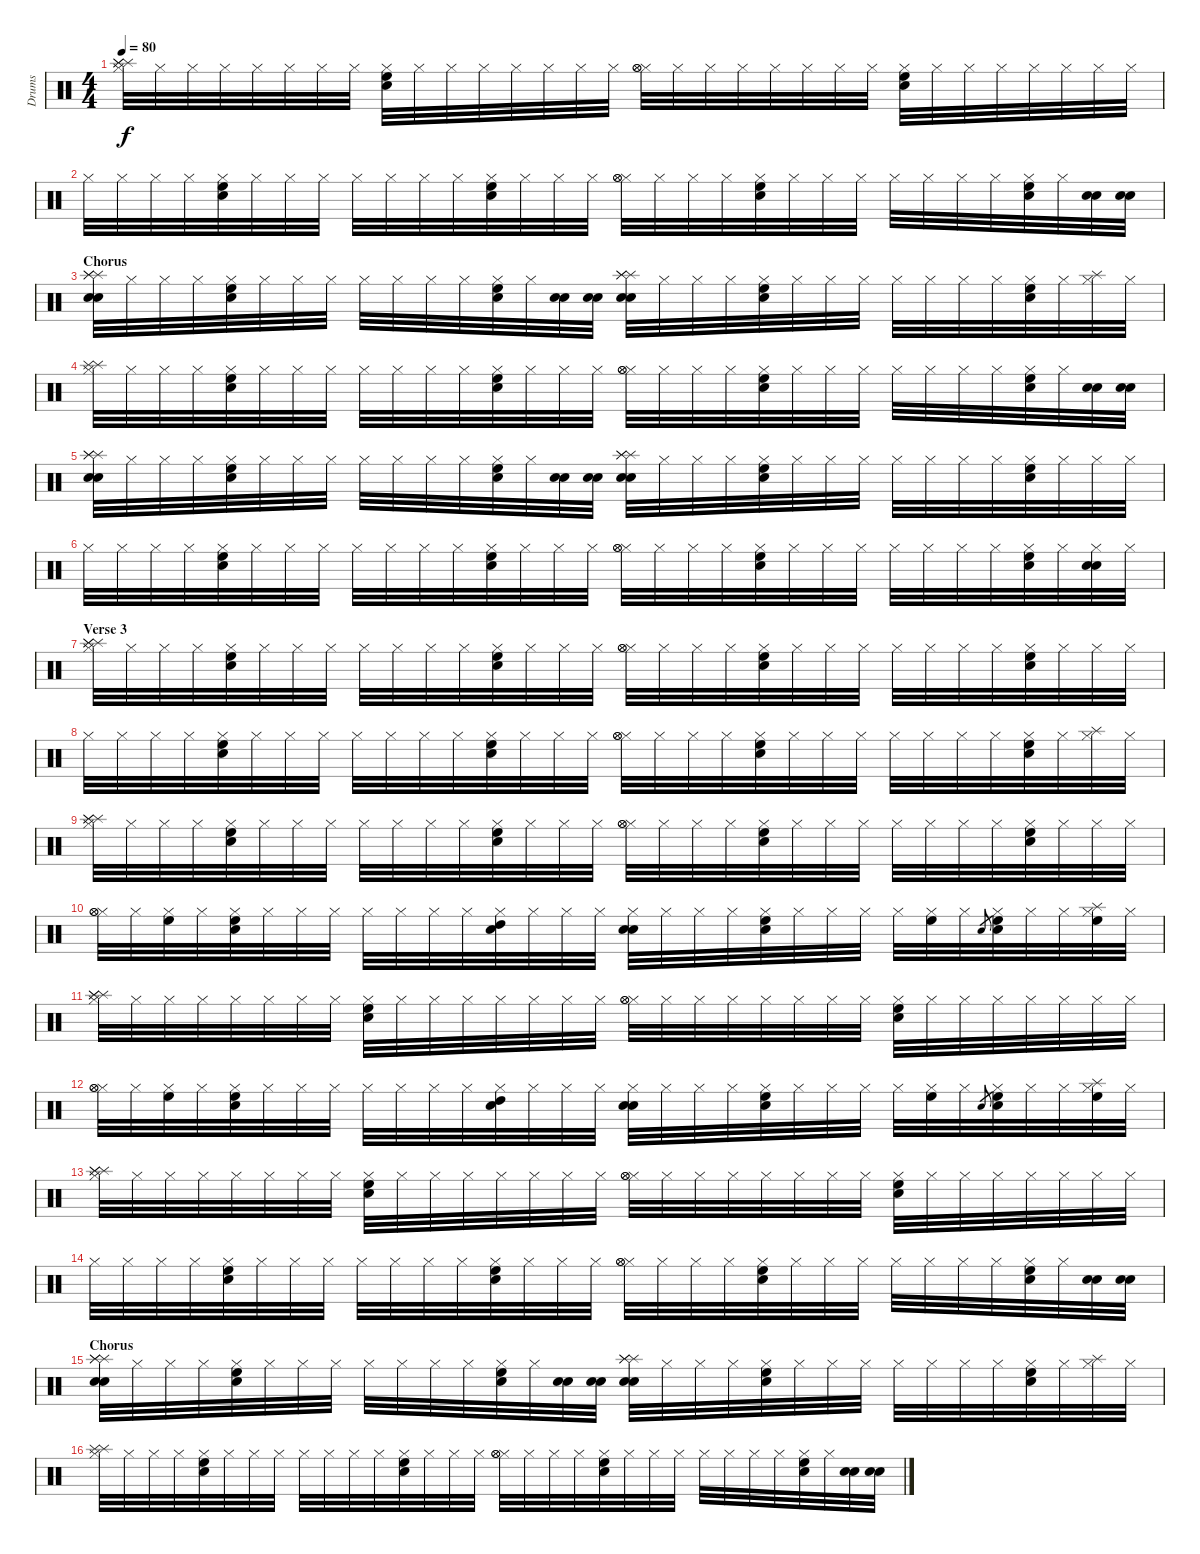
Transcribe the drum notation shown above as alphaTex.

\track ("Drums" "Drums") {instrument percussion}
\staff {score}
\articulation defaults
\ts (4 4)
\tempo 80
\clef neutral
\ks c
("Hi-Hat (closed)" "Splash (hit)" "Splash (hit)" "Splash (hit)").32{dy f} "Hi-Hat (closed)".32 "Hi-Hat (closed)".32 "Hi-Hat (closed)".32 "Hi-Hat (closed)".32 "Hi-Hat (closed)".32 "Hi-Hat (closed)".32 "Hi-Hat (closed)".32 ("Hi-Hat (closed)" "Snare (hit) 2" "High Floor Tom (hit)").32 "Hi-Hat (closed)".32 "Hi-Hat (closed)".32 "Hi-Hat (closed)".32 "Hi-Hat (closed)".32 "Hi-Hat (closed)".32 "Hi-Hat (closed)".32 "Hi-Hat (closed)".32 ("Hi-Hat (closed)" "Hi-Hat (open)" "Hi-Hat (open)").32 "Hi-Hat (closed)".32 "Hi-Hat (closed)".32 "Hi-Hat (closed)".32 "Hi-Hat (closed)".32 "Hi-Hat (closed)".32 "Hi-Hat (closed)".32 "Hi-Hat (closed)".32 ("Hi-Hat (closed)" "Snare (hit) 2" "High Floor Tom (hit)").32 "Hi-Hat (closed)".32 "Hi-Hat (closed)".32 "Hi-Hat (closed)".32 "Hi-Hat (closed)".32 "Hi-Hat (closed)".32 "Hi-Hat (closed)".32 "Hi-Hat (closed)".32 |
"Hi-Hat (closed)".32 "Hi-Hat (closed)".32 "Hi-Hat (closed)".32 "Hi-Hat (closed)".32 ("Hi-Hat (closed)" "Snare (hit) 2" "High Floor Tom (hit)").32 "Hi-Hat (closed)".32 "Hi-Hat (closed)".32 "Hi-Hat (closed)".32 "Hi-Hat (closed)".32 "Hi-Hat (closed)".32 "Hi-Hat (closed)".32 "Hi-Hat (closed)".32 ("Hi-Hat (closed)" "Snare (hit) 2" "High Floor Tom (hit)").32 "Hi-Hat (closed)".32 "Hi-Hat (closed)".32 "Hi-Hat (closed)".32 ("Hi-Hat (closed)" "Hi-Hat (open)" "Hi-Hat (open)").32 "Hi-Hat (closed)".32 "Hi-Hat (closed)".32 "Hi-Hat (closed)".32 ("Hi-Hat (closed)" "Snare (hit) 2" "High Floor Tom (hit)").32 "Hi-Hat (closed)".32 "Hi-Hat (closed)".32 "Hi-Hat (closed)".32 "Hi-Hat (closed)".32 "Hi-Hat (closed)".32 "Hi-Hat (closed)".32 "Hi-Hat (closed)".32 ("Hi-Hat (closed)" "Snare (hit) 2" "High Floor Tom (hit)").32 "Hi-Hat (closed)".32 ("Snare (hit) 2" "Snare (hit) 2").32 ("Snare (hit) 2" "Snare (hit) 2").32 |
\section ("" "Chorus")
("Snare (hit) 2" "Snare (hit) 2" "Splash (hit)" "Splash (hit)" "Splash (hit)").32 "Hi-Hat (closed)".32 "Hi-Hat (closed)".32 "Hi-Hat (closed)".32 ("Hi-Hat (closed)" "Snare (hit) 2" "High Floor Tom (hit)").32 "Hi-Hat (closed)".32 "Hi-Hat (closed)".32 "Hi-Hat (closed)".32 "Hi-Hat (closed)".32 "Hi-Hat (closed)".32 "Hi-Hat (closed)".32 "Hi-Hat (closed)".32 ("Hi-Hat (closed)" "Snare (hit) 2" "High Floor Tom (hit)").32 "Hi-Hat (closed)".32 ("Snare (hit) 2" "Snare (hit) 2").32 ("Snare (hit) 2" "Snare (hit) 2").32 ("Snare (hit) 2" "Snare (hit) 2" "Splash (hit)" "Splash (hit)" "Splash (hit)").32 "Hi-Hat (closed)".32 "Hi-Hat (closed)".32 "Hi-Hat (closed)".32 ("Hi-Hat (closed)" "Snare (hit) 2" "High Floor Tom (hit)").32 "Hi-Hat (closed)".32 "Hi-Hat (closed)".32 "Hi-Hat (closed)".32 "Hi-Hat (closed)".32 "Hi-Hat (closed)".32 "Hi-Hat (closed)".32 "Hi-Hat (closed)".32 ("Hi-Hat (closed)" "Snare (hit) 2" "High Floor Tom (hit)").32 "Hi-Hat (closed)".32 ("Hi-Hat (closed)" "Splash (hit)").32 "Hi-Hat (closed)".32 |
("Hi-Hat (closed)" "Splash (hit)" "Splash (hit)").32 "Hi-Hat (closed)".32 "Hi-Hat (closed)".32 "Hi-Hat (closed)".32 ("Hi-Hat (closed)" "Snare (hit) 2" "High Floor Tom (hit)").32 "Hi-Hat (closed)".32 "Hi-Hat (closed)".32 "Hi-Hat (closed)".32 "Hi-Hat (closed)".32 "Hi-Hat (closed)".32 "Hi-Hat (closed)".32 "Hi-Hat (closed)".32 ("Hi-Hat (closed)" "Snare (hit) 2" "High Floor Tom (hit)").32 "Hi-Hat (closed)".32 "Hi-Hat (closed)".32 "Hi-Hat (closed)".32 ("Hi-Hat (closed)" "Hi-Hat (open)" "Hi-Hat (open)").32 "Hi-Hat (closed)".32 "Hi-Hat (closed)".32 "Hi-Hat (closed)".32 ("Hi-Hat (closed)" "Snare (hit) 2" "High Floor Tom (hit)").32 "Hi-Hat (closed)".32 "Hi-Hat (closed)".32 "Hi-Hat (closed)".32 "Hi-Hat (closed)".32 "Hi-Hat (closed)".32 "Hi-Hat (closed)".32 "Hi-Hat (closed)".32 ("Hi-Hat (closed)" "Snare (hit) 2" "High Floor Tom (hit)").32 "Hi-Hat (closed)".32 ("Snare (hit) 2" "Snare (hit) 2").32 ("Snare (hit) 2" "Snare (hit) 2").32 |
("Snare (hit) 2" "Snare (hit) 2" "Splash (hit)" "Splash (hit)" "Splash (hit)").32 "Hi-Hat (closed)".32 "Hi-Hat (closed)".32 "Hi-Hat (closed)".32 ("Hi-Hat (closed)" "Snare (hit) 2" "High Floor Tom (hit)").32 "Hi-Hat (closed)".32 "Hi-Hat (closed)".32 "Hi-Hat (closed)".32 "Hi-Hat (closed)".32 "Hi-Hat (closed)".32 "Hi-Hat (closed)".32 "Hi-Hat (closed)".32 ("Hi-Hat (closed)" "Snare (hit) 2" "High Floor Tom (hit)").32 "Hi-Hat (closed)".32 ("Snare (hit) 2" "Snare (hit) 2").32 ("Snare (hit) 2" "Snare (hit) 2").32 ("Snare (hit) 2" "Snare (hit) 2" "Splash (hit)" "Splash (hit)" "Splash (hit)").32 "Hi-Hat (closed)".32 "Hi-Hat (closed)".32 "Hi-Hat (closed)".32 ("Hi-Hat (closed)" "Snare (hit) 2" "High Floor Tom (hit)").32 "Hi-Hat (closed)".32 "Hi-Hat (closed)".32 "Hi-Hat (closed)".32 "Hi-Hat (closed)".32 "Hi-Hat (closed)".32 "Hi-Hat (closed)".32 "Hi-Hat (closed)".32 ("Hi-Hat (closed)" "Snare (hit) 2" "High Floor Tom (hit)").32 "Hi-Hat (closed)".32 "Hi-Hat (closed)".32 "Hi-Hat (closed)".32 |
"Hi-Hat (closed)".32 "Hi-Hat (closed)".32 "Hi-Hat (closed)".32 "Hi-Hat (closed)".32 ("Hi-Hat (closed)" "Snare (hit) 2" "High Floor Tom (hit)").32 "Hi-Hat (closed)".32 "Hi-Hat (closed)".32 "Hi-Hat (closed)".32 "Hi-Hat (closed)".32 "Hi-Hat (closed)".32 "Hi-Hat (closed)".32 "Hi-Hat (closed)".32 ("Hi-Hat (closed)" "Snare (hit) 2" "High Floor Tom (hit)").32 "Hi-Hat (closed)".32 "Hi-Hat (closed)".32 "Hi-Hat (closed)".32 ("Hi-Hat (closed)" "Hi-Hat (open)" "Hi-Hat (open)").32 "Hi-Hat (closed)".32 "Hi-Hat (closed)".32 "Hi-Hat (closed)".32 ("Hi-Hat (closed)" "Snare (hit) 2" "High Floor Tom (hit)").32 "Hi-Hat (closed)".32 "Hi-Hat (closed)".32 "Hi-Hat (closed)".32 "Hi-Hat (closed)".32 "Hi-Hat (closed)".32 "Hi-Hat (closed)".32 "Hi-Hat (closed)".32 ("Hi-Hat (closed)" "Snare (hit) 2" "High Floor Tom (hit)").32 "Hi-Hat (closed)".32 ("Hi-Hat (closed)" "Snare (hit) 2" "Snare (hit) 2").32 "Hi-Hat (closed)".32 |
\section ("" "Verse 3")
("Hi-Hat (closed)" "Splash (hit)" "Splash (hit)" "Splash (hit)").32 "Hi-Hat (closed)".32 "Hi-Hat (closed)".32 "Hi-Hat (closed)".32 ("Hi-Hat (closed)" "Snare (hit) 2" "High Floor Tom (hit)").32 "Hi-Hat (closed)".32 "Hi-Hat (closed)".32 "Hi-Hat (closed)".32 "Hi-Hat (closed)".32 "Hi-Hat (closed)".32 "Hi-Hat (closed)".32 "Hi-Hat (closed)".32 ("Hi-Hat (closed)" "Snare (hit) 2" "High Floor Tom (hit)").32 "Hi-Hat (closed)".32 "Hi-Hat (closed)".32 "Hi-Hat (closed)".32 ("Hi-Hat (closed)" "Hi-Hat (open)" "Hi-Hat (open)").32 "Hi-Hat (closed)".32 "Hi-Hat (closed)".32 "Hi-Hat (closed)".32 ("Hi-Hat (closed)" "Snare (hit) 2" "High Floor Tom (hit)").32 "Hi-Hat (closed)".32 "Hi-Hat (closed)".32 "Hi-Hat (closed)".32 "Hi-Hat (closed)".32 "Hi-Hat (closed)".32 "Hi-Hat (closed)".32 "Hi-Hat (closed)".32 ("Hi-Hat (closed)" "Snare (hit) 2" "High Floor Tom (hit)").32 "Hi-Hat (closed)".32 "Hi-Hat (closed)".32 "Hi-Hat (closed)".32 |
"Hi-Hat (closed)".32 "Hi-Hat (closed)".32 "Hi-Hat (closed)".32 "Hi-Hat (closed)".32 ("Hi-Hat (closed)" "Snare (hit) 2" "High Floor Tom (hit)").32 "Hi-Hat (closed)".32 "Hi-Hat (closed)".32 "Hi-Hat (closed)".32 "Hi-Hat (closed)".32 "Hi-Hat (closed)".32 "Hi-Hat (closed)".32 "Hi-Hat (closed)".32 ("Hi-Hat (closed)" "Snare (hit) 2" "High Floor Tom (hit)").32 "Hi-Hat (closed)".32 "Hi-Hat (closed)".32 "Hi-Hat (closed)".32 ("Hi-Hat (closed)" "Hi-Hat (open)" "Hi-Hat (open)").32 "Hi-Hat (closed)".32 "Hi-Hat (closed)".32 "Hi-Hat (closed)".32 ("Hi-Hat (closed)" "Snare (hit) 2" "High Floor Tom (hit)").32 "Hi-Hat (closed)".32 "Hi-Hat (closed)".32 "Hi-Hat (closed)".32 "Hi-Hat (closed)".32 "Hi-Hat (closed)".32 "Hi-Hat (closed)".32 "Hi-Hat (closed)".32 ("Hi-Hat (closed)" "Snare (hit) 2" "High Floor Tom (hit)").32 "Hi-Hat (closed)".32 ("Hi-Hat (closed)" "Splash (hit)").32 "Hi-Hat (closed)".32 |
("Hi-Hat (closed)" "Splash (hit)" "Splash (hit)" "Splash (hit)").32 "Hi-Hat (closed)".32 "Hi-Hat (closed)".32 "Hi-Hat (closed)".32 ("Hi-Hat (closed)" "Snare (hit) 2" "High Floor Tom (hit)").32 "Hi-Hat (closed)".32 "Hi-Hat (closed)".32 "Hi-Hat (closed)".32 "Hi-Hat (closed)".32 "Hi-Hat (closed)".32 "Hi-Hat (closed)".32 "Hi-Hat (closed)".32 ("Hi-Hat (closed)" "Snare (hit) 2" "High Floor Tom (hit)").32 "Hi-Hat (closed)".32 "Hi-Hat (closed)".32 "Hi-Hat (closed)".32 ("Hi-Hat (closed)" "Hi-Hat (open)" "Hi-Hat (open)").32 "Hi-Hat (closed)".32 "Hi-Hat (closed)".32 "Hi-Hat (closed)".32 ("Hi-Hat (closed)" "Snare (hit) 2" "High Floor Tom (hit)").32 "Hi-Hat (closed)".32 "Hi-Hat (closed)".32 "Hi-Hat (closed)".32 "Hi-Hat (closed)".32 "Hi-Hat (closed)".32 "Hi-Hat (closed)".32 "Hi-Hat (closed)".32 ("Hi-Hat (closed)" "Snare (hit) 2" "High Floor Tom (hit)").32 "Hi-Hat (closed)".32 "Hi-Hat (closed)".32 "Hi-Hat (closed)".32 |
("Hi-Hat (closed)" "Hi-Hat (open)" "Hi-Hat (open)").32 "Hi-Hat (closed)".32 ("Hi-Hat (closed)" "High Floor Tom (hit)").32 "Hi-Hat (closed)".32 ("Hi-Hat (closed)" "Snare (hit) 2" "High Floor Tom (hit)").32 "Hi-Hat (closed)".32 "Hi-Hat (closed)".32 "Hi-Hat (closed)".32 "Hi-Hat (closed)".32 "Hi-Hat (closed)".32 "Hi-Hat (closed)".32 "Hi-Hat (closed)".32 ("Hi-Hat (closed)" "Snare (hit) 2" "High Tom (hit)").32 "Hi-Hat (closed)".32 "Hi-Hat (closed)".32 "Hi-Hat (closed)".32 ("Hi-Hat (closed)" "Snare (hit) 2" "Snare (hit) 2").32 "Hi-Hat (closed)".32 "Hi-Hat (closed)".32 "Hi-Hat (closed)".32 ("Hi-Hat (closed)" "Snare (hit) 2" "High Floor Tom (hit)").32 "Hi-Hat (closed)".32 "Hi-Hat (closed)".32 "Hi-Hat (closed)".32 "Hi-Hat (closed)".32 ("Hi-Hat (closed)" "High Floor Tom (hit)").32 "Hi-Hat (closed)".32 "Snare (hit) 2".8{gr} ("Hi-Hat (closed)" "Snare (hit) 2" "High Floor Tom (hit)").32 "Hi-Hat (closed)".32 "Hi-Hat (closed)".32 ("Hi-Hat (closed)" "Splash (hit)" "High Floor Tom (hit)").32 "Hi-Hat (closed)".32 |
("Hi-Hat (closed)" "Splash (hit)" "Splash (hit)" "Splash (hit)").32 "Hi-Hat (closed)".32 "Hi-Hat (closed)".32 "Hi-Hat (closed)".32 "Hi-Hat (closed)".32 "Hi-Hat (closed)".32 "Hi-Hat (closed)".32 "Hi-Hat (closed)".32 ("Hi-Hat (closed)" "Snare (hit) 2" "High Floor Tom (hit)").32 "Hi-Hat (closed)".32 "Hi-Hat (closed)".32 "Hi-Hat (closed)".32 "Hi-Hat (closed)".32 "Hi-Hat (closed)".32 "Hi-Hat (closed)".32 "Hi-Hat (closed)".32 ("Hi-Hat (closed)" "Hi-Hat (open)" "Hi-Hat (open)").32 "Hi-Hat (closed)".32 "Hi-Hat (closed)".32 "Hi-Hat (closed)".32 "Hi-Hat (closed)".32 "Hi-Hat (closed)".32 "Hi-Hat (closed)".32 "Hi-Hat (closed)".32 ("Hi-Hat (closed)" "Snare (hit) 2" "High Floor Tom (hit)").32 "Hi-Hat (closed)".32 "Hi-Hat (closed)".32 "Hi-Hat (closed)".32 "Hi-Hat (closed)".32 "Hi-Hat (closed)".32 "Hi-Hat (closed)".32 "Hi-Hat (closed)".32 |
("Hi-Hat (closed)" "Hi-Hat (open)" "Hi-Hat (open)").32 "Hi-Hat (closed)".32 ("Hi-Hat (closed)" "High Floor Tom (hit)").32 "Hi-Hat (closed)".32 ("Hi-Hat (closed)" "Snare (hit) 2" "High Floor Tom (hit)").32 "Hi-Hat (closed)".32 "Hi-Hat (closed)".32 "Hi-Hat (closed)".32 "Hi-Hat (closed)".32 "Hi-Hat (closed)".32 "Hi-Hat (closed)".32 "Hi-Hat (closed)".32 ("Hi-Hat (closed)" "Snare (hit) 2" "High Tom (hit)").32 "Hi-Hat (closed)".32 "Hi-Hat (closed)".32 "Hi-Hat (closed)".32 ("Hi-Hat (closed)" "Snare (hit) 2" "Snare (hit) 2").32 "Hi-Hat (closed)".32 "Hi-Hat (closed)".32 "Hi-Hat (closed)".32 ("Hi-Hat (closed)" "Snare (hit) 2" "High Floor Tom (hit)").32 "Hi-Hat (closed)".32 "Hi-Hat (closed)".32 "Hi-Hat (closed)".32 "Hi-Hat (closed)".32 ("Hi-Hat (closed)" "High Floor Tom (hit)").32 "Hi-Hat (closed)".32 "Snare (hit) 2".8{gr} ("Hi-Hat (closed)" "Snare (hit) 2" "High Floor Tom (hit)").32 "Hi-Hat (closed)".32 "Hi-Hat (closed)".32 ("Hi-Hat (closed)" "Splash (hit)" "High Floor Tom (hit)").32 "Hi-Hat (closed)".32 |
("Hi-Hat (closed)" "Splash (hit)" "Splash (hit)" "Splash (hit)").32 "Hi-Hat (closed)".32 "Hi-Hat (closed)".32 "Hi-Hat (closed)".32 "Hi-Hat (closed)".32 "Hi-Hat (closed)".32 "Hi-Hat (closed)".32 "Hi-Hat (closed)".32 ("Hi-Hat (closed)" "Snare (hit) 2" "High Floor Tom (hit)").32 "Hi-Hat (closed)".32 "Hi-Hat (closed)".32 "Hi-Hat (closed)".32 "Hi-Hat (closed)".32 "Hi-Hat (closed)".32 "Hi-Hat (closed)".32 "Hi-Hat (closed)".32 ("Hi-Hat (closed)" "Hi-Hat (open)" "Hi-Hat (open)").32 "Hi-Hat (closed)".32 "Hi-Hat (closed)".32 "Hi-Hat (closed)".32 "Hi-Hat (closed)".32 "Hi-Hat (closed)".32 "Hi-Hat (closed)".32 "Hi-Hat (closed)".32 ("Hi-Hat (closed)" "Snare (hit) 2" "High Floor Tom (hit)").32 "Hi-Hat (closed)".32 "Hi-Hat (closed)".32 "Hi-Hat (closed)".32 "Hi-Hat (closed)".32 "Hi-Hat (closed)".32 "Hi-Hat (closed)".32 "Hi-Hat (closed)".32 |
"Hi-Hat (closed)".32 "Hi-Hat (closed)".32 "Hi-Hat (closed)".32 "Hi-Hat (closed)".32 ("Hi-Hat (closed)" "Snare (hit) 2" "High Floor Tom (hit)").32 "Hi-Hat (closed)".32 "Hi-Hat (closed)".32 "Hi-Hat (closed)".32 "Hi-Hat (closed)".32 "Hi-Hat (closed)".32 "Hi-Hat (closed)".32 "Hi-Hat (closed)".32 ("Hi-Hat (closed)" "Snare (hit) 2" "High Floor Tom (hit)").32 "Hi-Hat (closed)".32 "Hi-Hat (closed)".32 "Hi-Hat (closed)".32 ("Hi-Hat (closed)" "Hi-Hat (open)" "Hi-Hat (open)").32 "Hi-Hat (closed)".32 "Hi-Hat (closed)".32 "Hi-Hat (closed)".32 ("Hi-Hat (closed)" "Snare (hit) 2" "High Floor Tom (hit)").32 "Hi-Hat (closed)".32 "Hi-Hat (closed)".32 "Hi-Hat (closed)".32 "Hi-Hat (closed)".32 "Hi-Hat (closed)".32 "Hi-Hat (closed)".32 "Hi-Hat (closed)".32 ("Hi-Hat (closed)" "Snare (hit) 2" "High Floor Tom (hit)").32 "Hi-Hat (closed)".32 ("Snare (hit) 2" "Snare (hit) 2").32 ("Snare (hit) 2" "Snare (hit) 2").32 |
\section ("" "Chorus")
("Snare (hit) 2" "Snare (hit) 2" "Splash (hit)" "Splash (hit)" "Splash (hit)").32 "Hi-Hat (closed)".32 "Hi-Hat (closed)".32 "Hi-Hat (closed)".32 ("Hi-Hat (closed)" "Snare (hit) 2" "High Floor Tom (hit)").32 "Hi-Hat (closed)".32 "Hi-Hat (closed)".32 "Hi-Hat (closed)".32 "Hi-Hat (closed)".32 "Hi-Hat (closed)".32 "Hi-Hat (closed)".32 "Hi-Hat (closed)".32 ("Hi-Hat (closed)" "Snare (hit) 2" "High Floor Tom (hit)").32 "Hi-Hat (closed)".32 ("Snare (hit) 2" "Snare (hit) 2").32 ("Snare (hit) 2" "Snare (hit) 2").32 ("Snare (hit) 2" "Snare (hit) 2" "Splash (hit)" "Splash (hit)" "Splash (hit)").32 "Hi-Hat (closed)".32 "Hi-Hat (closed)".32 "Hi-Hat (closed)".32 ("Hi-Hat (closed)" "Snare (hit) 2" "High Floor Tom (hit)").32 "Hi-Hat (closed)".32 "Hi-Hat (closed)".32 "Hi-Hat (closed)".32 "Hi-Hat (closed)".32 "Hi-Hat (closed)".32 "Hi-Hat (closed)".32 "Hi-Hat (closed)".32 ("Hi-Hat (closed)" "Snare (hit) 2" "High Floor Tom (hit)").32 "Hi-Hat (closed)".32 ("Hi-Hat (closed)" "Splash (hit)").32 "Hi-Hat (closed)".32 |
("Hi-Hat (closed)" "Splash (hit)" "Splash (hit)").32 "Hi-Hat (closed)".32 "Hi-Hat (closed)".32 "Hi-Hat (closed)".32 ("Hi-Hat (closed)" "Snare (hit) 2" "High Floor Tom (hit)").32 "Hi-Hat (closed)".32 "Hi-Hat (closed)".32 "Hi-Hat (closed)".32 "Hi-Hat (closed)".32 "Hi-Hat (closed)".32 "Hi-Hat (closed)".32 "Hi-Hat (closed)".32 ("Hi-Hat (closed)" "Snare (hit) 2" "High Floor Tom (hit)").32 "Hi-Hat (closed)".32 "Hi-Hat (closed)".32 "Hi-Hat (closed)".32 ("Hi-Hat (closed)" "Hi-Hat (open)" "Hi-Hat (open)").32 "Hi-Hat (closed)".32 "Hi-Hat (closed)".32 "Hi-Hat (closed)".32 ("Hi-Hat (closed)" "Snare (hit) 2" "High Floor Tom (hit)").32 "Hi-Hat (closed)".32 "Hi-Hat (closed)".32 "Hi-Hat (closed)".32 "Hi-Hat (closed)".32 "Hi-Hat (closed)".32 "Hi-Hat (closed)".32 "Hi-Hat (closed)".32 ("Hi-Hat (closed)" "Snare (hit) 2" "High Floor Tom (hit)").32 "Hi-Hat (closed)".32 ("Snare (hit) 2" "Snare (hit) 2").32 ("Snare (hit) 2" "Snare (hit) 2").32
